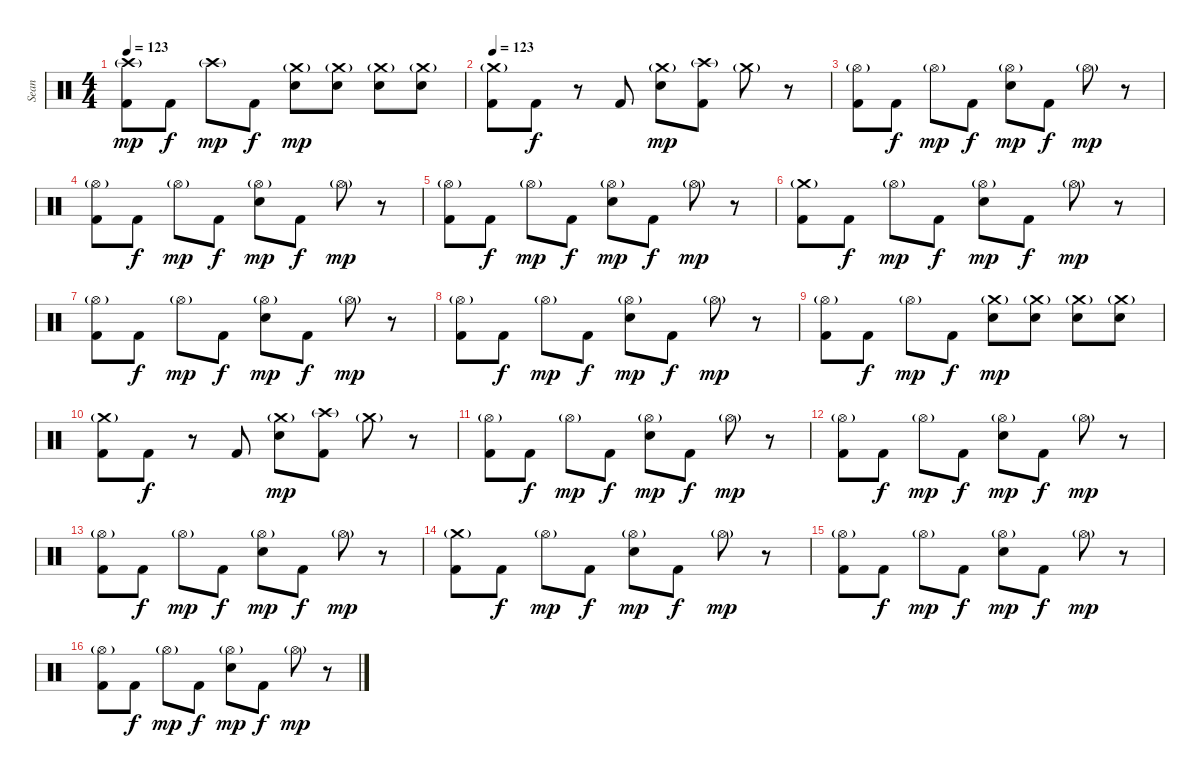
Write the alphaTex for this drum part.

\track ("Sean" "Sean") {instrument percussion}
\staff {score}
\articulation defaults
\ts (4 4)
\tempo 123
\clef neutral
\ks c
("Crash high (hit)"{g} "Kick (hit) 2").8{dy mp} "Kick (hit) 2".8{dy f} "Crash high (hit)"{g}.8{dy mp} "Kick (hit) 2".8{dy f} ("Crash medium (hit)"{g} "Electric Snare (hit)").8{dy mp} ("Crash medium (hit)"{g} "Electric Snare (hit)").8 ("Crash medium (hit)"{g} "Electric Snare (hit)").8 ("Crash medium (hit)"{g} "Electric Snare (hit)").8 |
\tempo 123
("Crash medium (hit)"{g} "Kick (hit) 2").8 "Kick (hit) 2".8{dy f} r.8 "Kick (hit) 2".8 ("Crash medium (hit)"{g} "Electric Snare (hit)").8{dy mp} ("Crash high (hit)"{g} "Kick (hit) 2").8 "Crash medium (hit)"{g}.8 r.8 |
("Hi-Hat (open)"{g} "Kick (hit) 2").8 "Kick (hit) 2".8{dy f} "Hi-Hat (open)"{g}.8{dy mp} "Kick (hit) 2".8{dy f} ("Hi-Hat (open)"{g} "Electric Snare (hit)").8{dy mp} "Kick (hit) 2".8{dy f} "Hi-Hat (open)"{g}.8{dy mp} r.8 |
("Hi-Hat (open)"{g} "Kick (hit) 2").8 "Kick (hit) 2".8{dy f} "Hi-Hat (open)"{g}.8{dy mp} "Kick (hit) 2".8{dy f} ("Hi-Hat (open)"{g} "Electric Snare (hit)").8{dy mp} "Kick (hit) 2".8{dy f} "Hi-Hat (open)"{g}.8{dy mp} r.8 |
("Hi-Hat (open)"{g} "Kick (hit) 2").8 "Kick (hit) 2".8{dy f} "Hi-Hat (open)"{g}.8{dy mp} "Kick (hit) 2".8{dy f} ("Hi-Hat (open)"{g} "Electric Snare (hit)").8{dy mp} "Kick (hit) 2".8{dy f} "Hi-Hat (open)"{g}.8{dy mp} r.8 |
("Crash medium (hit)"{g} "Kick (hit) 2").8 "Kick (hit) 2".8{dy f} "Hi-Hat (open)"{g}.8{dy mp} "Kick (hit) 2".8{dy f} ("Hi-Hat (open)"{g} "Electric Snare (hit)").8{dy mp} "Kick (hit) 2".8{dy f} "Hi-Hat (open)"{g}.8{dy mp} r.8 |
("Hi-Hat (open)"{g} "Kick (hit) 2").8 "Kick (hit) 2".8{dy f} "Hi-Hat (open)"{g}.8{dy mp} "Kick (hit) 2".8{dy f} ("Hi-Hat (open)"{g} "Electric Snare (hit)").8{dy mp} "Kick (hit) 2".8{dy f} "Hi-Hat (open)"{g}.8{dy mp} r.8 |
("Hi-Hat (open)"{g} "Kick (hit) 2").8 "Kick (hit) 2".8{dy f} "Hi-Hat (open)"{g}.8{dy mp} "Kick (hit) 2".8{dy f} ("Hi-Hat (open)"{g} "Electric Snare (hit)").8{dy mp} "Kick (hit) 2".8{dy f} "Hi-Hat (open)"{g}.8{dy mp} r.8 |
("Hi-Hat (open)"{g} "Kick (hit) 2").8 "Kick (hit) 2".8{dy f} "Hi-Hat (open)"{g}.8{dy mp} "Kick (hit) 2".8{dy f} ("Crash medium (hit)"{g} "Electric Snare (hit)").8{dy mp} ("Crash medium (hit)"{g} "Electric Snare (hit)").8 ("Crash medium (hit)"{g} "Electric Snare (hit)").8 ("Crash medium (hit)"{g} "Electric Snare (hit)").8 |
("Crash medium (hit)"{g} "Kick (hit) 2").8 "Kick (hit) 2".8{dy f} r.8 "Kick (hit) 2".8 ("Crash medium (hit)"{g} "Electric Snare (hit)").8{dy mp} ("Crash high (hit)"{g} "Kick (hit) 2").8 "Crash medium (hit)"{g}.8 r.8 |
("Hi-Hat (open)"{g} "Kick (hit) 2").8 "Kick (hit) 2".8{dy f} "Hi-Hat (open)"{g}.8{dy mp} "Kick (hit) 2".8{dy f} ("Hi-Hat (open)"{g} "Electric Snare (hit)").8{dy mp} "Kick (hit) 2".8{dy f} "Hi-Hat (open)"{g}.8{dy mp} r.8 |
("Hi-Hat (open)"{g} "Kick (hit) 2").8 "Kick (hit) 2".8{dy f} "Hi-Hat (open)"{g}.8{dy mp} "Kick (hit) 2".8{dy f} ("Hi-Hat (open)"{g} "Electric Snare (hit)").8{dy mp} "Kick (hit) 2".8{dy f} "Hi-Hat (open)"{g}.8{dy mp} r.8 |
("Hi-Hat (open)"{g} "Kick (hit) 2").8 "Kick (hit) 2".8{dy f} "Hi-Hat (open)"{g}.8{dy mp} "Kick (hit) 2".8{dy f} ("Hi-Hat (open)"{g} "Electric Snare (hit)").8{dy mp} "Kick (hit) 2".8{dy f} "Hi-Hat (open)"{g}.8{dy mp} r.8 |
("Crash medium (hit)"{g} "Kick (hit) 2").8 "Kick (hit) 2".8{dy f} "Hi-Hat (open)"{g}.8{dy mp} "Kick (hit) 2".8{dy f} ("Hi-Hat (open)"{g} "Electric Snare (hit)").8{dy mp} "Kick (hit) 2".8{dy f} "Hi-Hat (open)"{g}.8{dy mp} r.8 |
("Hi-Hat (open)"{g} "Kick (hit) 2").8 "Kick (hit) 2".8{dy f} "Hi-Hat (open)"{g}.8{dy mp} "Kick (hit) 2".8{dy f} ("Hi-Hat (open)"{g} "Electric Snare (hit)").8{dy mp} "Kick (hit) 2".8{dy f} "Hi-Hat (open)"{g}.8{dy mp} r.8 |
("Hi-Hat (open)"{g} "Kick (hit) 2").8 "Kick (hit) 2".8{dy f} "Hi-Hat (open)"{g}.8{dy mp} "Kick (hit) 2".8{dy f} ("Hi-Hat (open)"{g} "Electric Snare (hit)").8{dy mp} "Kick (hit) 2".8{dy f} "Hi-Hat (open)"{g}.8{dy mp} r.8
